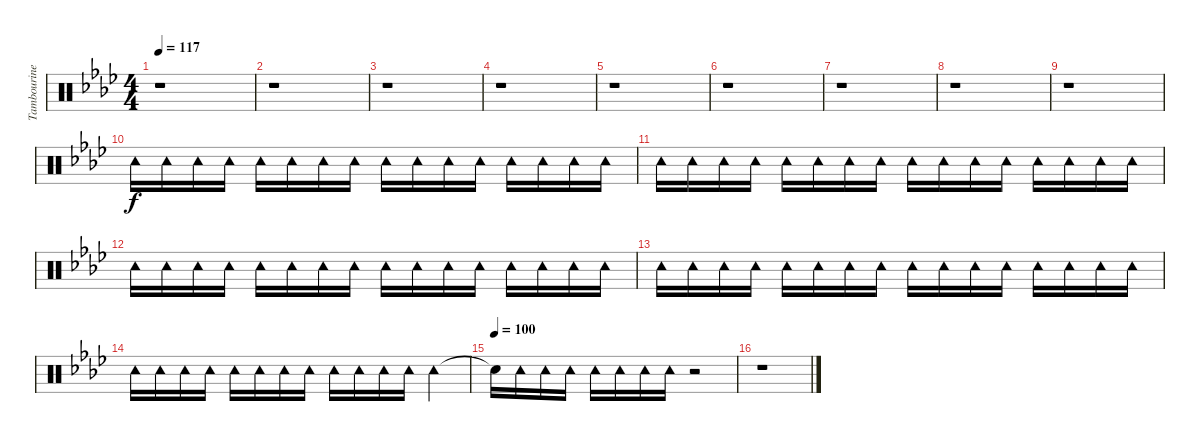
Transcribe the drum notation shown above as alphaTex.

\track ("Tambourine" "Tambourine") {instrument percussion}
\staff {score}
\articulation defaults
\ts (4 4)
\tempo 117
\clef neutral
\ks ab
r.1{dy f} |
r.1 |
r.1 |
r.1 |
r.1 |
r.1 |
r.1 |
r.1 |
r.1 |
"Tambourine (hit)".16 "Tambourine (hit)".16 "Tambourine (hit)".16 "Tambourine (hit)".16 "Tambourine (hit)".16 "Tambourine (hit)".16 "Tambourine (hit)".16 "Tambourine (hit)".16 "Tambourine (hit)".16 "Tambourine (hit)".16 "Tambourine (hit)".16 "Tambourine (hit)".16 "Tambourine (hit)".16 "Tambourine (hit)".16 "Tambourine (hit)".16 "Tambourine (hit)".16 |
"Tambourine (hit)".16 "Tambourine (hit)".16 "Tambourine (hit)".16 "Tambourine (hit)".16 "Tambourine (hit)".16 "Tambourine (hit)".16 "Tambourine (hit)".16 "Tambourine (hit)".16 "Tambourine (hit)".16 "Tambourine (hit)".16 "Tambourine (hit)".16 "Tambourine (hit)".16 "Tambourine (hit)".16 "Tambourine (hit)".16 "Tambourine (hit)".16 "Tambourine (hit)".16 |
"Tambourine (hit)".16 "Tambourine (hit)".16 "Tambourine (hit)".16 "Tambourine (hit)".16 "Tambourine (hit)".16 "Tambourine (hit)".16 "Tambourine (hit)".16 "Tambourine (hit)".16 "Tambourine (hit)".16 "Tambourine (hit)".16 "Tambourine (hit)".16 "Tambourine (hit)".16 "Tambourine (hit)".16 "Tambourine (hit)".16 "Tambourine (hit)".16 "Tambourine (hit)".16 |
"Tambourine (hit)".16 "Tambourine (hit)".16 "Tambourine (hit)".16 "Tambourine (hit)".16 "Tambourine (hit)".16 "Tambourine (hit)".16 "Tambourine (hit)".16 "Tambourine (hit)".16 "Tambourine (hit)".16 "Tambourine (hit)".16 "Tambourine (hit)".16 "Tambourine (hit)".16 "Tambourine (hit)".16 "Tambourine (hit)".16 "Tambourine (hit)".16 "Tambourine (hit)".16 |
"Tambourine (hit)".16 "Tambourine (hit)".16 "Tambourine (hit)".16 "Tambourine (hit)".16 "Tambourine (hit)".16 "Tambourine (hit)".16 "Tambourine (hit)".16 "Tambourine (hit)".16 "Tambourine (hit)".16 "Tambourine (hit)".16 "Tambourine (hit)".16 "Tambourine (hit)".16 "Tambourine (hit)".4 |
\tempo (100)
"Snare (hit)"{t}.16 "Tambourine (hit)".16 "Tambourine (hit)".16 "Tambourine (hit)".16 "Tambourine (hit)".16 "Tambourine (hit)".16 "Tambourine (hit)".16 "Tambourine (hit)".16 r.2 |
r.1
